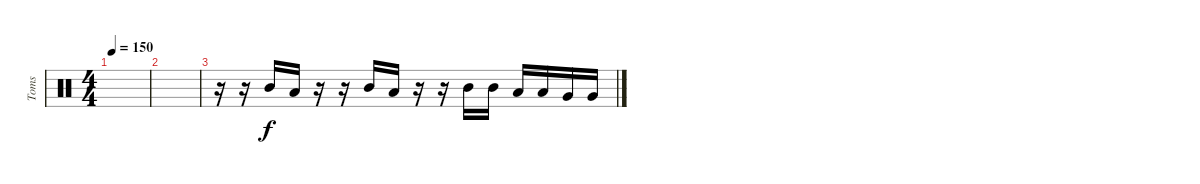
\track ("Toms" "Toms") {instrument percussion}
\staff {score}
\articulation defaults
\ts (4 4)
\tempo 150
\clef neutral
\ks c
|
|
r.16 r.16 "Mid Tom (hit)".16 "Low Tom (hit)".16 r.16 r.16 "Mid Tom (hit)".16 "Low Tom (hit)".16 r.16 r.16 "Mid Tom (hit)".16 "Mid Tom (hit)".16 "Low Tom (hit)".16 "Low Tom (hit)".16 "Very Low Tom (hit)".16 "Very Low Tom (hit)".16
